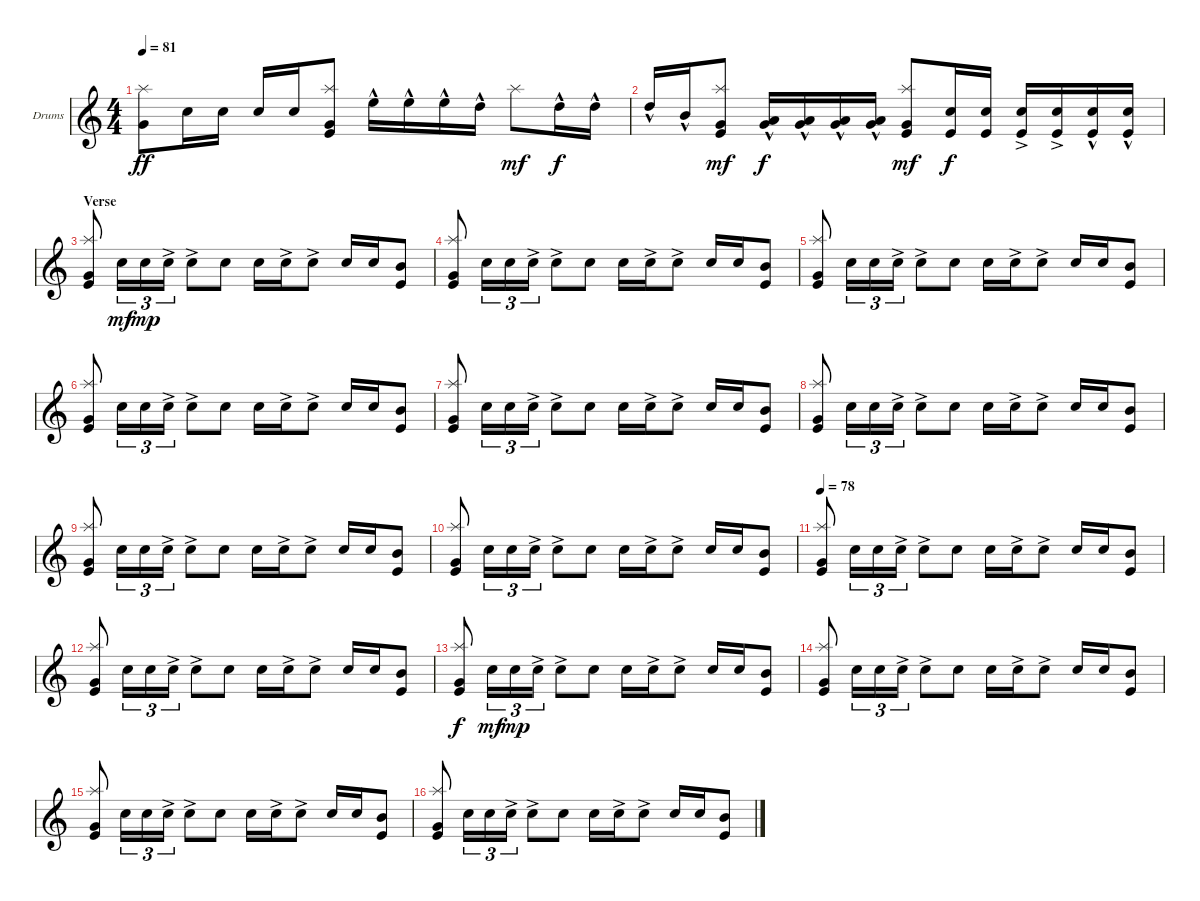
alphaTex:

\defaultSystemsLayout 4
\bracketExtendMode groupsimilarinstruments
\firstSystemTrackNameOrientation horizontal
\otherSystemsTrackNameOrientation horizontal
\track ("Dom" "Drums") {instrument percussion}
\staff {score}
\articulation defaults
\ts (4 4)
\tempo 81
\clef g2
\ks c
("Very Low Tom (hit)" "Splash (hit)").8{dy ff} "Snare (hit) 2".16 "Snare (hit) 2".16 "Snare (hit) 2".16 "Snare (hit) 2".16 ("Kick (hit)" "Very Low Tom (hit)" "Splash (hit)").8 "High Floor Tom (hit)"{hac}.16 "High Floor Tom (hit)"{hac}.16 "High Floor Tom (hit)"{hac}.16 "High Tom (hit)"{hac}.16 "Splash (hit)".8{dy mf} "High Tom (hit)"{hac}.16{dy f} "High Tom (hit)"{hac}.16 |
"High Tom (hit)"{hac}.16 "Mid Tom (hit)"{hac}.16 ("Splash (hit)" "Kick (hit)" "Very Low Tom (hit)").8{dy mf} ("Low Tom (hit)"{hac} "Very Low Tom (hit)"{hac}).16{dy f} ("Low Tom (hit)"{hac} "Very Low Tom (hit)"{hac}).16 ("Low Tom (hit)"{hac} "Very Low Tom (hit)"{hac}).16 ("Low Tom (hit)"{hac} "Very Low Tom (hit)"{hac}).16 ("Splash (hit)" "Very Low Tom (hit)" "Kick (hit)").8{dy mf} ("Snare (hit) 2" "Kick (hit)").16{dy f} ("Snare (hit) 2" "Kick (hit)").16 ("Snare (hit) 2"{ac} "Kick (hit)").16 ("Snare (hit) 2"{ac} "Kick (hit)").16 ("Snare (hit) 2"{hac} "Kick (hit)").16 ("Snare (hit) 2"{hac} "Kick (hit)").16 |
\section ("" "Verse")
("Splash (hit)" "Kick (hit)" "Very Low Tom (hit)").8 "Snare (hit) 2".16{tu (3 2) dy mf} "Snare (hit) 2".16{tu (3 2) dy mp} "Snare (hit) 2"{ac}.16{tu (3 2)} "Snare (hit) 2"{ac}.8 "Snare (hit) 2".8 "Snare (hit) 2".16 "Snare (hit) 2"{ac}.16 "Snare (hit) 2"{ac}.8 "Snare (hit) 2".16 "Snare (hit) 2".16 ("Kick (hit)" "Mid Tom (hit)").8 |
("Splash (hit)" "Kick (hit)" "Very Low Tom (hit)").8 "Snare (hit) 2".16{tu (3 2)} "Snare (hit) 2".16{tu (3 2)} "Snare (hit) 2"{ac}.16{tu (3 2)} "Snare (hit) 2"{ac}.8 "Snare (hit) 2".8 "Snare (hit) 2".16 "Snare (hit) 2"{ac}.16 "Snare (hit) 2"{ac}.8 "Snare (hit) 2".16 "Snare (hit) 2".16 ("Kick (hit)" "Mid Tom (hit)").8 |
("Splash (hit)" "Kick (hit)" "Very Low Tom (hit)").8 "Snare (hit) 2".16{tu (3 2)} "Snare (hit) 2".16{tu (3 2)} "Snare (hit) 2"{ac}.16{tu (3 2)} "Snare (hit) 2"{ac}.8 "Snare (hit) 2".8 "Snare (hit) 2".16 "Snare (hit) 2"{ac}.16 "Snare (hit) 2"{ac}.8 "Snare (hit) 2".16 "Snare (hit) 2".16 ("Kick (hit)" "Mid Tom (hit)").8 |
("Splash (hit)" "Kick (hit)" "Very Low Tom (hit)").8 "Snare (hit) 2".16{tu (3 2)} "Snare (hit) 2".16{tu (3 2)} "Snare (hit) 2"{ac}.16{tu (3 2)} "Snare (hit) 2"{ac}.8 "Snare (hit) 2".8 "Snare (hit) 2".16 "Snare (hit) 2"{ac}.16 "Snare (hit) 2"{ac}.8 "Snare (hit) 2".16 "Snare (hit) 2".16 ("Kick (hit)" "Mid Tom (hit)").8 |
("Splash (hit)" "Kick (hit)" "Very Low Tom (hit)").8 "Snare (hit) 2".16{tu (3 2)} "Snare (hit) 2".16{tu (3 2)} "Snare (hit) 2"{ac}.16{tu (3 2)} "Snare (hit) 2"{ac}.8 "Snare (hit) 2".8 "Snare (hit) 2".16 "Snare (hit) 2"{ac}.16 "Snare (hit) 2"{ac}.8 "Snare (hit) 2".16 "Snare (hit) 2".16 ("Kick (hit)" "Mid Tom (hit)").8 |
("Splash (hit)" "Kick (hit)" "Very Low Tom (hit)").8 "Snare (hit) 2".16{tu (3 2)} "Snare (hit) 2".16{tu (3 2)} "Snare (hit) 2"{ac}.16{tu (3 2)} "Snare (hit) 2"{ac}.8 "Snare (hit) 2".8 "Snare (hit) 2".16 "Snare (hit) 2"{ac}.16 "Snare (hit) 2"{ac}.8 "Snare (hit) 2".16 "Snare (hit) 2".16 ("Kick (hit)" "Mid Tom (hit)").8 |
("Splash (hit)" "Kick (hit)" "Very Low Tom (hit)").8 "Snare (hit) 2".16{tu (3 2)} "Snare (hit) 2".16{tu (3 2)} "Snare (hit) 2"{ac}.16{tu (3 2)} "Snare (hit) 2"{ac}.8 "Snare (hit) 2".8 "Snare (hit) 2".16 "Snare (hit) 2"{ac}.16 "Snare (hit) 2"{ac}.8 "Snare (hit) 2".16 "Snare (hit) 2".16 ("Kick (hit)" "Mid Tom (hit)").8 |
("Splash (hit)" "Kick (hit)" "Very Low Tom (hit)").8 "Snare (hit) 2".16{tu (3 2)} "Snare (hit) 2".16{tu (3 2)} "Snare (hit) 2"{ac}.16{tu (3 2)} "Snare (hit) 2"{ac}.8 "Snare (hit) 2".8 "Snare (hit) 2".16 "Snare (hit) 2"{ac}.16 "Snare (hit) 2"{ac}.8 "Snare (hit) 2".16 "Snare (hit) 2".16 ("Kick (hit)" "Mid Tom (hit)").8 |
\tempo 78
("Splash (hit)" "Kick (hit)" "Very Low Tom (hit)").8 "Snare (hit) 2".16{tu (3 2)} "Snare (hit) 2".16{tu (3 2)} "Snare (hit) 2"{ac}.16{tu (3 2)} "Snare (hit) 2"{ac}.8 "Snare (hit) 2".8 "Snare (hit) 2".16 "Snare (hit) 2"{ac}.16 "Snare (hit) 2"{ac}.8 "Snare (hit) 2".16 "Snare (hit) 2".16 ("Kick (hit)" "Mid Tom (hit)").8 |
("Splash (hit)" "Kick (hit)" "Very Low Tom (hit)").8 "Snare (hit) 2".16{tu (3 2)} "Snare (hit) 2".16{tu (3 2)} "Snare (hit) 2"{ac}.16{tu (3 2)} "Snare (hit) 2"{ac}.8 "Snare (hit) 2".8 "Snare (hit) 2".16 "Snare (hit) 2"{ac}.16 "Snare (hit) 2"{ac}.8 "Snare (hit) 2".16 "Snare (hit) 2".16 ("Kick (hit)" "Mid Tom (hit)").8 |
("Splash (hit)" "Kick (hit)" "Very Low Tom (hit)").8{dy f} "Snare (hit) 2".16{tu (3 2) dy mf} "Snare (hit) 2".16{tu (3 2) dy mp} "Snare (hit) 2"{ac}.16{tu (3 2)} "Snare (hit) 2"{ac}.8 "Snare (hit) 2".8 "Snare (hit) 2".16 "Snare (hit) 2"{ac}.16 "Snare (hit) 2"{ac}.8 "Snare (hit) 2".16 "Snare (hit) 2".16 ("Kick (hit)" "Mid Tom (hit)").8 |
("Splash (hit)" "Kick (hit)" "Very Low Tom (hit)").8 "Snare (hit) 2".16{tu (3 2)} "Snare (hit) 2".16{tu (3 2)} "Snare (hit) 2"{ac}.16{tu (3 2)} "Snare (hit) 2"{ac}.8 "Snare (hit) 2".8 "Snare (hit) 2".16 "Snare (hit) 2"{ac}.16 "Snare (hit) 2"{ac}.8 "Snare (hit) 2".16 "Snare (hit) 2".16 ("Kick (hit)" "Mid Tom (hit)").8 |
("Splash (hit)" "Kick (hit)" "Very Low Tom (hit)").8 "Snare (hit) 2".16{tu (3 2)} "Snare (hit) 2".16{tu (3 2)} "Snare (hit) 2"{ac}.16{tu (3 2)} "Snare (hit) 2"{ac}.8 "Snare (hit) 2".8 "Snare (hit) 2".16 "Snare (hit) 2"{ac}.16 "Snare (hit) 2"{ac}.8 "Snare (hit) 2".16 "Snare (hit) 2".16 ("Kick (hit)" "Mid Tom (hit)").8 |
("Splash (hit)" "Kick (hit)" "Very Low Tom (hit)").8 "Snare (hit) 2".16{tu (3 2)} "Snare (hit) 2".16{tu (3 2)} "Snare (hit) 2"{ac}.16{tu (3 2)} "Snare (hit) 2"{ac}.8 "Snare (hit) 2".8 "Snare (hit) 2".16 "Snare (hit) 2"{ac}.16 "Snare (hit) 2"{ac}.8 "Snare (hit) 2".16 "Snare (hit) 2".16 ("Kick (hit)" "Mid Tom (hit)").8
